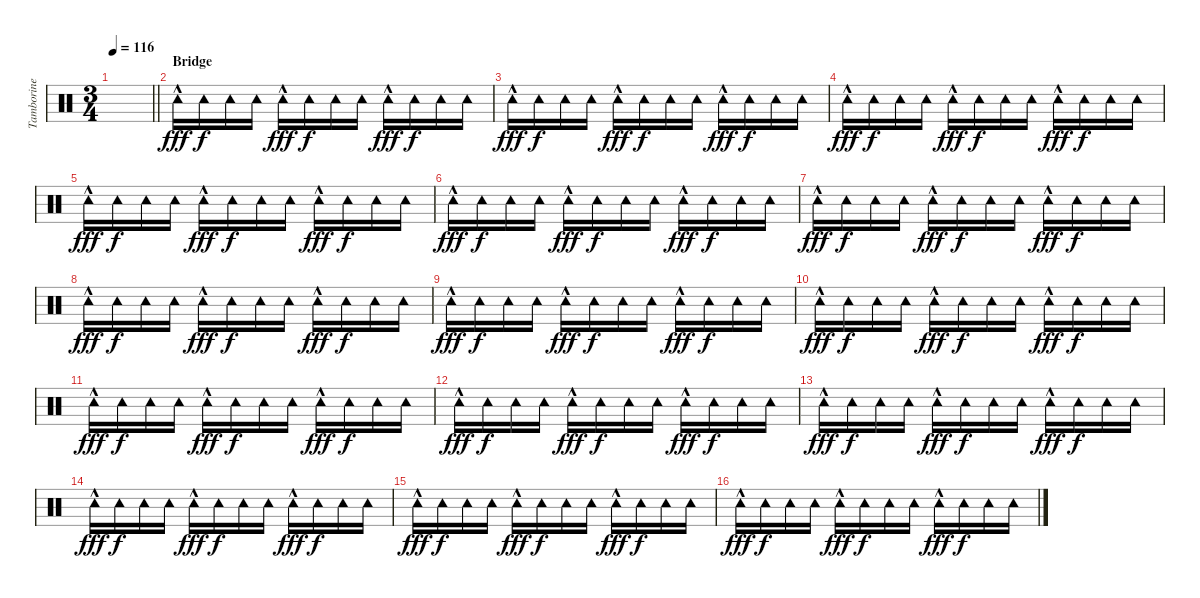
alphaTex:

\track ("Tamborine" "Tamborine") {instrument percussion}
\staff {score}
\articulation defaults
\ts (3 4)
\tempo 116
\clef neutral
\barLineRight lightlight
\ks c
|
\section ("" "Bridge")
"Tambourine (hit)"{hac}.16{dy fff} "Tambourine (hit)".16{dy f} "Tambourine (hit)".16 "Tambourine (hit)".16 "Tambourine (hit)"{hac}.16{dy fff} "Tambourine (hit)".16{dy f} "Tambourine (hit)".16 "Tambourine (hit)".16 "Tambourine (hit)"{hac}.16{dy fff} "Tambourine (hit)".16{dy f} "Tambourine (hit)".16 "Tambourine (hit)".16 |
"Tambourine (hit)"{hac}.16{dy fff} "Tambourine (hit)".16{dy f} "Tambourine (hit)".16 "Tambourine (hit)".16 "Tambourine (hit)"{hac}.16{dy fff} "Tambourine (hit)".16{dy f} "Tambourine (hit)".16 "Tambourine (hit)".16 "Tambourine (hit)"{hac}.16{dy fff} "Tambourine (hit)".16{dy f} "Tambourine (hit)".16 "Tambourine (hit)".16 |
"Tambourine (hit)"{hac}.16{dy fff} "Tambourine (hit)".16{dy f} "Tambourine (hit)".16 "Tambourine (hit)".16 "Tambourine (hit)"{hac}.16{dy fff} "Tambourine (hit)".16{dy f} "Tambourine (hit)".16 "Tambourine (hit)".16 "Tambourine (hit)"{hac}.16{dy fff} "Tambourine (hit)".16{dy f} "Tambourine (hit)".16 "Tambourine (hit)".16 |
"Tambourine (hit)"{hac}.16{dy fff} "Tambourine (hit)".16{dy f} "Tambourine (hit)".16 "Tambourine (hit)".16 "Tambourine (hit)"{hac}.16{dy fff} "Tambourine (hit)".16{dy f} "Tambourine (hit)".16 "Tambourine (hit)".16 "Tambourine (hit)"{hac}.16{dy fff} "Tambourine (hit)".16{dy f} "Tambourine (hit)".16 "Tambourine (hit)".16 |
"Tambourine (hit)"{hac}.16{dy fff} "Tambourine (hit)".16{dy f} "Tambourine (hit)".16 "Tambourine (hit)".16 "Tambourine (hit)"{hac}.16{dy fff} "Tambourine (hit)".16{dy f} "Tambourine (hit)".16 "Tambourine (hit)".16 "Tambourine (hit)"{hac}.16{dy fff} "Tambourine (hit)".16{dy f} "Tambourine (hit)".16 "Tambourine (hit)".16 |
"Tambourine (hit)"{hac}.16{dy fff} "Tambourine (hit)".16{dy f} "Tambourine (hit)".16 "Tambourine (hit)".16 "Tambourine (hit)"{hac}.16{dy fff} "Tambourine (hit)".16{dy f} "Tambourine (hit)".16 "Tambourine (hit)".16 "Tambourine (hit)"{hac}.16{dy fff} "Tambourine (hit)".16{dy f} "Tambourine (hit)".16 "Tambourine (hit)".16 |
"Tambourine (hit)"{hac}.16{dy fff} "Tambourine (hit)".16{dy f} "Tambourine (hit)".16 "Tambourine (hit)".16 "Tambourine (hit)"{hac}.16{dy fff} "Tambourine (hit)".16{dy f} "Tambourine (hit)".16 "Tambourine (hit)".16 "Tambourine (hit)"{hac}.16{dy fff} "Tambourine (hit)".16{dy f} "Tambourine (hit)".16 "Tambourine (hit)".16 |
"Tambourine (hit)"{hac}.16{dy fff} "Tambourine (hit)".16{dy f} "Tambourine (hit)".16 "Tambourine (hit)".16 "Tambourine (hit)"{hac}.16{dy fff} "Tambourine (hit)".16{dy f} "Tambourine (hit)".16 "Tambourine (hit)".16 "Tambourine (hit)"{hac}.16{dy fff} "Tambourine (hit)".16{dy f} "Tambourine (hit)".16 "Tambourine (hit)".16 |
"Tambourine (hit)"{hac}.16{dy fff} "Tambourine (hit)".16{dy f} "Tambourine (hit)".16 "Tambourine (hit)".16 "Tambourine (hit)"{hac}.16{dy fff} "Tambourine (hit)".16{dy f} "Tambourine (hit)".16 "Tambourine (hit)".16 "Tambourine (hit)"{hac}.16{dy fff} "Tambourine (hit)".16{dy f} "Tambourine (hit)".16 "Tambourine (hit)".16 |
"Tambourine (hit)"{hac}.16{dy fff} "Tambourine (hit)".16{dy f} "Tambourine (hit)".16 "Tambourine (hit)".16 "Tambourine (hit)"{hac}.16{dy fff} "Tambourine (hit)".16{dy f} "Tambourine (hit)".16 "Tambourine (hit)".16 "Tambourine (hit)"{hac}.16{dy fff} "Tambourine (hit)".16{dy f} "Tambourine (hit)".16 "Tambourine (hit)".16 |
"Tambourine (hit)"{hac}.16{dy fff} "Tambourine (hit)".16{dy f} "Tambourine (hit)".16 "Tambourine (hit)".16 "Tambourine (hit)"{hac}.16{dy fff} "Tambourine (hit)".16{dy f} "Tambourine (hit)".16 "Tambourine (hit)".16 "Tambourine (hit)"{hac}.16{dy fff} "Tambourine (hit)".16{dy f} "Tambourine (hit)".16 "Tambourine (hit)".16 |
"Tambourine (hit)"{hac}.16{dy fff} "Tambourine (hit)".16{dy f} "Tambourine (hit)".16 "Tambourine (hit)".16 "Tambourine (hit)"{hac}.16{dy fff} "Tambourine (hit)".16{dy f} "Tambourine (hit)".16 "Tambourine (hit)".16 "Tambourine (hit)"{hac}.16{dy fff} "Tambourine (hit)".16{dy f} "Tambourine (hit)".16 "Tambourine (hit)".16 |
"Tambourine (hit)"{hac}.16{dy fff} "Tambourine (hit)".16{dy f} "Tambourine (hit)".16 "Tambourine (hit)".16 "Tambourine (hit)"{hac}.16{dy fff} "Tambourine (hit)".16{dy f} "Tambourine (hit)".16 "Tambourine (hit)".16 "Tambourine (hit)"{hac}.16{dy fff} "Tambourine (hit)".16{dy f} "Tambourine (hit)".16 "Tambourine (hit)".16 |
"Tambourine (hit)"{hac}.16{dy fff} "Tambourine (hit)".16{dy f} "Tambourine (hit)".16 "Tambourine (hit)".16 "Tambourine (hit)"{hac}.16{dy fff} "Tambourine (hit)".16{dy f} "Tambourine (hit)".16 "Tambourine (hit)".16 "Tambourine (hit)"{hac}.16{dy fff} "Tambourine (hit)".16{dy f} "Tambourine (hit)".16 "Tambourine (hit)".16 |
"Tambourine (hit)"{hac}.16{dy fff} "Tambourine (hit)".16{dy f} "Tambourine (hit)".16 "Tambourine (hit)".16 "Tambourine (hit)"{hac}.16{dy fff} "Tambourine (hit)".16{dy f} "Tambourine (hit)".16 "Tambourine (hit)".16 "Tambourine (hit)"{hac}.16{dy fff} "Tambourine (hit)".16{dy f} "Tambourine (hit)".16 "Tambourine (hit)".16
